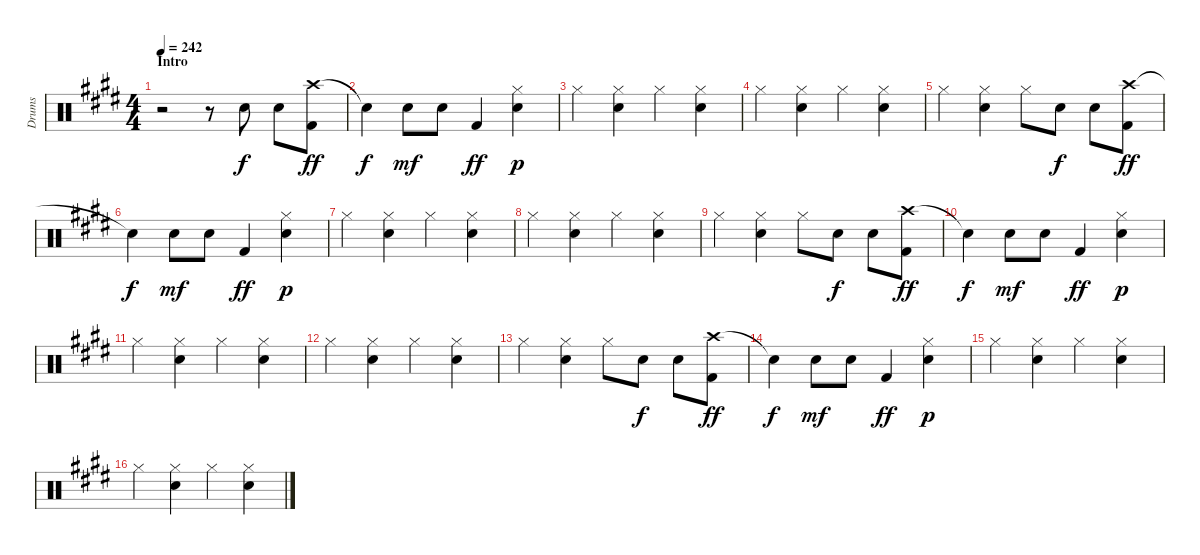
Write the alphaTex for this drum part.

\track ("Drums" "Drums") {instrument percussion}
\staff {score}
\articulation defaults
\ts (4 4)
\section ("" "Intro")
\tempo 242
\clef neutral
\ks e
r.2{dy f} r.8 "Electric Snare (hit)".8 "Electric Snare (hit)".8 ("Crash high (hit)" "Kick (hit) 2").8{dy ff} |
"Snare (hit)"{t}.4{dy f} "Electric Snare (hit)".8{dy mf} "Electric Snare (hit)".8 "Kick (hit) 2".4{dy ff} ("Hi-Hat (closed)" "Electric Snare (hit)").4{dy p} |
"Hi-Hat (closed)".4 ("Hi-Hat (closed)" "Electric Snare (hit)").4 "Hi-Hat (closed)".4 ("Hi-Hat (closed)" "Electric Snare (hit)").4 |
"Hi-Hat (closed)".4 ("Hi-Hat (closed)" "Electric Snare (hit)").4 "Hi-Hat (closed)".4 ("Hi-Hat (closed)" "Electric Snare (hit)").4 |
"Hi-Hat (closed)".4 ("Hi-Hat (closed)" "Electric Snare (hit)").4 "Hi-Hat (closed)".8 "Electric Snare (hit)".8{dy f} "Electric Snare (hit)".8 ("Crash high (hit)" "Kick (hit) 2").8{dy ff} |
"Snare (hit)"{t}.4{dy f} "Electric Snare (hit)".8{dy mf} "Electric Snare (hit)".8 "Kick (hit) 2".4{dy ff} ("Hi-Hat (closed)" "Electric Snare (hit)").4{dy p} |
"Hi-Hat (closed)".4 ("Hi-Hat (closed)" "Electric Snare (hit)").4 "Hi-Hat (closed)".4 ("Hi-Hat (closed)" "Electric Snare (hit)").4 |
"Hi-Hat (closed)".4 ("Hi-Hat (closed)" "Electric Snare (hit)").4 "Hi-Hat (closed)".4 ("Hi-Hat (closed)" "Electric Snare (hit)").4 |
"Hi-Hat (closed)".4 ("Hi-Hat (closed)" "Electric Snare (hit)").4 "Hi-Hat (closed)".8 "Electric Snare (hit)".8{dy f} "Electric Snare (hit)".8 ("Crash high (hit)" "Kick (hit) 2").8{dy ff} |
"Snare (hit)"{t}.4{dy f} "Electric Snare (hit)".8{dy mf} "Electric Snare (hit)".8 "Kick (hit) 2".4{dy ff} ("Hi-Hat (closed)" "Electric Snare (hit)").4{dy p} |
"Hi-Hat (closed)".4 ("Hi-Hat (closed)" "Electric Snare (hit)").4 "Hi-Hat (closed)".4 ("Hi-Hat (closed)" "Electric Snare (hit)").4 |
"Hi-Hat (closed)".4 ("Hi-Hat (closed)" "Electric Snare (hit)").4 "Hi-Hat (closed)".4 ("Hi-Hat (closed)" "Electric Snare (hit)").4 |
"Hi-Hat (closed)".4 ("Hi-Hat (closed)" "Electric Snare (hit)").4 "Hi-Hat (closed)".8 "Electric Snare (hit)".8{dy f} "Electric Snare (hit)".8 ("Crash high (hit)" "Kick (hit) 2").8{dy ff} |
"Snare (hit)"{t}.4{dy f} "Electric Snare (hit)".8{dy mf} "Electric Snare (hit)".8 "Kick (hit) 2".4{dy ff} ("Hi-Hat (closed)" "Electric Snare (hit)").4{dy p} |
"Hi-Hat (closed)".4 ("Hi-Hat (closed)" "Electric Snare (hit)").4 "Hi-Hat (closed)".4 ("Hi-Hat (closed)" "Electric Snare (hit)").4 |
"Hi-Hat (closed)".4 ("Hi-Hat (closed)" "Electric Snare (hit)").4 "Hi-Hat (closed)".4 ("Hi-Hat (closed)" "Electric Snare (hit)").4
